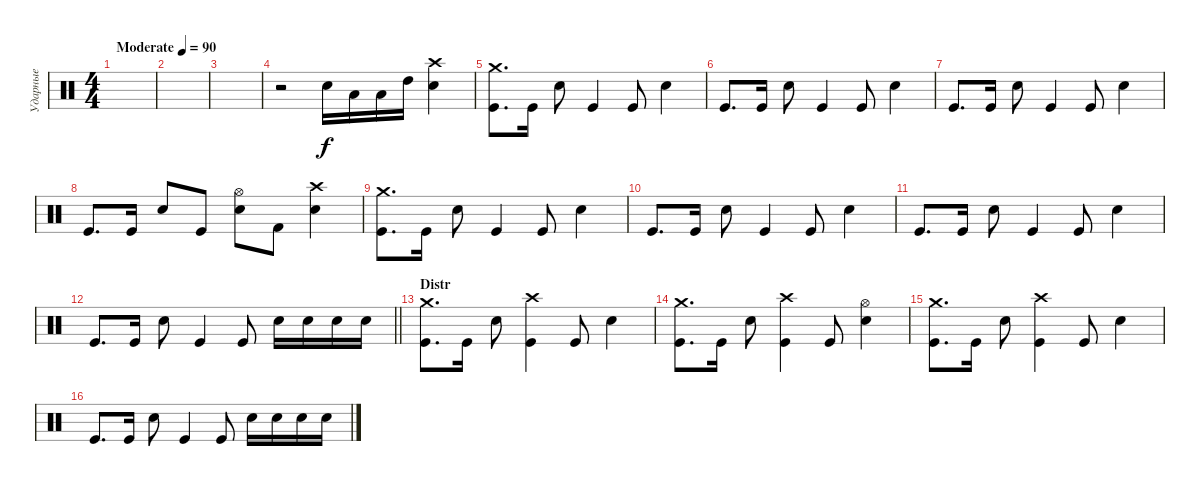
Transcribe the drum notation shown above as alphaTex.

\track ("Ударные" "Ударные") {instrument percussion}
\staff {score}
\articulation defaults
\ts (4 4)
\tempo (90 "Moderate")
\clef neutral
\ks c
|
|
|
r.2 "Snare (hit) 2".16 "Low Floor Tom (hit)".16 "Low Tom (hit)".16 "High Tom (hit)".16 ("Crash high (hit)" "Snare (hit) 2").4 |
("Crash medium (hit)" "Kick (hit)").8{d} "Kick (hit)".16 "Snare (hit) 2".8 "Kick (hit)".4 "Kick (hit)".8 "Snare (hit) 2".4 |
"Kick (hit)".8{d} "Kick (hit)".16 "Snare (hit) 2".8 "Kick (hit)".4 "Kick (hit)".8 "Snare (hit) 2".4 |
"Kick (hit)".8{d} "Kick (hit)".16 "Snare (hit) 2".8 "Kick (hit)".4 "Kick (hit)".8 "Snare (hit) 2".4 |
"Kick (hit)".8{d} "Kick (hit)".16 "Snare (hit) 2".8 "Kick (hit)".8 ("Hi-Hat (open)" "Snare (hit) 2").8 "Kick (hit) 2".8 ("Crash high (hit)" "Snare (hit) 2").4 |
("Crash medium (hit)" "Kick (hit)").8{d} "Kick (hit)".16 "Snare (hit) 2".8 "Kick (hit)".4 "Kick (hit)".8 "Snare (hit) 2".4 |
"Kick (hit)".8{d} "Kick (hit)".16 "Snare (hit) 2".8 "Kick (hit)".4 "Kick (hit)".8 "Snare (hit) 2".4 |
"Kick (hit)".8{d} "Kick (hit)".16 "Snare (hit) 2".8 "Kick (hit)".4 "Kick (hit)".8 "Snare (hit) 2".4 |
\barLineRight lightlight "Kick (hit)".8{d} "Kick (hit)".16 "Snare (hit) 2".8 "Kick (hit)".4 "Kick (hit)".8 "Snare (hit) 2".16 "Snare (hit) 2".16 "Snare (hit) 2".16 "Snare (hit) 2".16
|
\section ("" "Distr")
("Crash medium (hit)" "Kick (hit)").8{d} "Kick (hit)".16 "Snare (hit) 2".8 ("Crash high (hit)" "Kick (hit)").4 "Kick (hit)".8 "Snare (hit) 2".4 |
("Crash medium (hit)" "Kick (hit)").8{d} "Kick (hit)".16 "Snare (hit) 2".8 ("Crash high (hit)" "Kick (hit)").4 "Kick (hit)".8 ("Hi-Hat (open)" "Snare (hit) 2").4 |
("Crash medium (hit)" "Kick (hit)").8{d} "Kick (hit)".16 "Snare (hit) 2".8 ("Crash high (hit)" "Kick (hit)").4 "Kick (hit)".8 "Snare (hit) 2".4 |
"Kick (hit)".8{d} "Kick (hit)".16 "Snare (hit) 2".8 "Kick (hit)".4 "Kick (hit)".8 "Snare (hit) 2".16 "Snare (hit) 2".16 "Snare (hit) 2".16 "Snare (hit) 2".16
